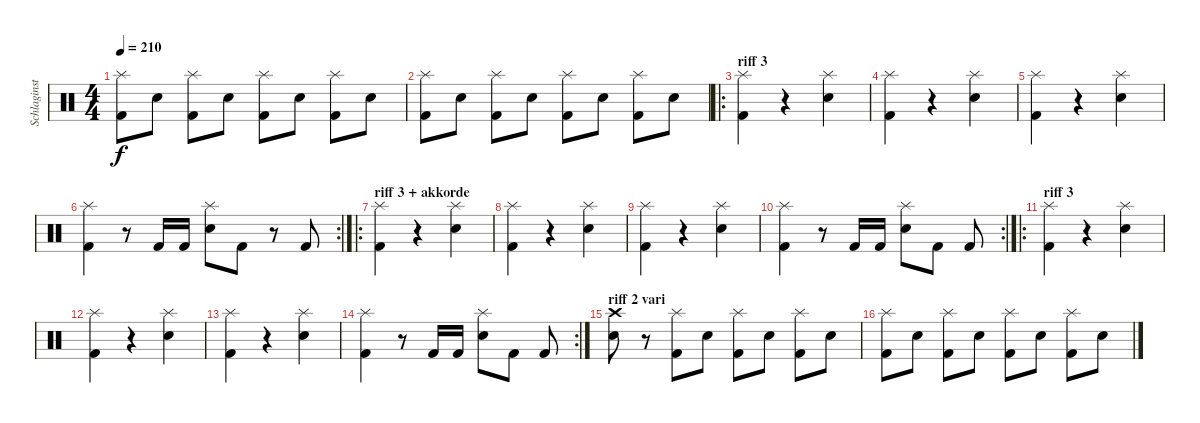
\track ("Schlaginstrumente - Auswahl" "Schlaginst") {instrument percussion}
\staff {score}
\articulation defaults
\ts (4 4)
\tempo 210
\clef neutral
\ks c
("Splash (hit)" "Kick (hit) 2").8{dy f} "Electric Snare (hit)".8 ("Splash (hit)" "Kick (hit) 2").8 "Electric Snare (hit)".8 ("Splash (hit)" "Kick (hit) 2").8 "Electric Snare (hit)".8 ("Splash (hit)" "Kick (hit) 2").8 "Electric Snare (hit)".8 |
("Splash (hit)" "Kick (hit) 2").8 "Electric Snare (hit)".8 ("Splash (hit)" "Kick (hit) 2").8 "Electric Snare (hit)".8 ("Splash (hit)" "Kick (hit) 2").8 "Electric Snare (hit)".8 ("Splash (hit)" "Kick (hit) 2").8 "Electric Snare (hit)".8 |
\ro
\section ("" "riff 3")
("Splash (hit)" "Kick (hit) 2").4 r.4 ("Electric Snare (hit)" "Splash (hit)").4 |
("Splash (hit)" "Kick (hit) 2").4 r.4 ("Electric Snare (hit)" "Splash (hit)").4 |
("Splash (hit)" "Kick (hit) 2").4 r.4 ("Electric Snare (hit)" "Splash (hit)").4 |
\rc 2
("Splash (hit)" "Kick (hit) 2").4 r.8 "Kick (hit) 2".16 "Kick (hit) 2".16 ("Electric Snare (hit)" "Splash (hit)").8 "Kick (hit) 2".8 r.8 "Kick (hit) 2".8 |
\ro
\section ("" "riff 3 + akkorde")
("Splash (hit)" "Kick (hit) 2").4 r.4 ("Electric Snare (hit)" "Splash (hit)").4 |
("Splash (hit)" "Kick (hit) 2").4 r.4 ("Electric Snare (hit)" "Splash (hit)").4 |
("Splash (hit)" "Kick (hit) 2").4 r.4 ("Electric Snare (hit)" "Splash (hit)").4 |
\rc 2
("Splash (hit)" "Kick (hit) 2").4 r.8 "Kick (hit) 2".16 "Kick (hit) 2".16 ("Electric Snare (hit)" "Splash (hit)").8 "Kick (hit) 2".8 "Kick (hit) 2".8 |
\ro
\section ("" "riff 3")
("Splash (hit)" "Kick (hit) 2").4 r.4 ("Electric Snare (hit)" "Splash (hit)").4 |
("Splash (hit)" "Kick (hit) 2").4 r.4 ("Electric Snare (hit)" "Splash (hit)").4 |
("Splash (hit)" "Kick (hit) 2").4 r.4 ("Electric Snare (hit)" "Splash (hit)").4 |
\rc 2
("Splash (hit)" "Kick (hit) 2").4 r.8 "Kick (hit) 2".16 "Kick (hit) 2".16 ("Electric Snare (hit)" "Splash (hit)").8 "Kick (hit) 2".8 "Kick (hit) 2".8 |
\section ("" "riff 2 vari")
("Electric Snare (hit)" "Crash high (hit)").8 r.8 ("Splash (hit)" "Kick (hit) 2").8 "Electric Snare (hit)".8 ("Splash (hit)" "Kick (hit) 2").8 "Electric Snare (hit)".8 ("Splash (hit)" "Kick (hit) 2").8 "Electric Snare (hit)".8 |
("Splash (hit)" "Kick (hit) 2").8 "Electric Snare (hit)".8 ("Splash (hit)" "Kick (hit) 2").8 "Electric Snare (hit)".8 ("Splash (hit)" "Kick (hit) 2").8 "Electric Snare (hit)".8 ("Splash (hit)" "Kick (hit) 2").8 "Electric Snare (hit)".8
